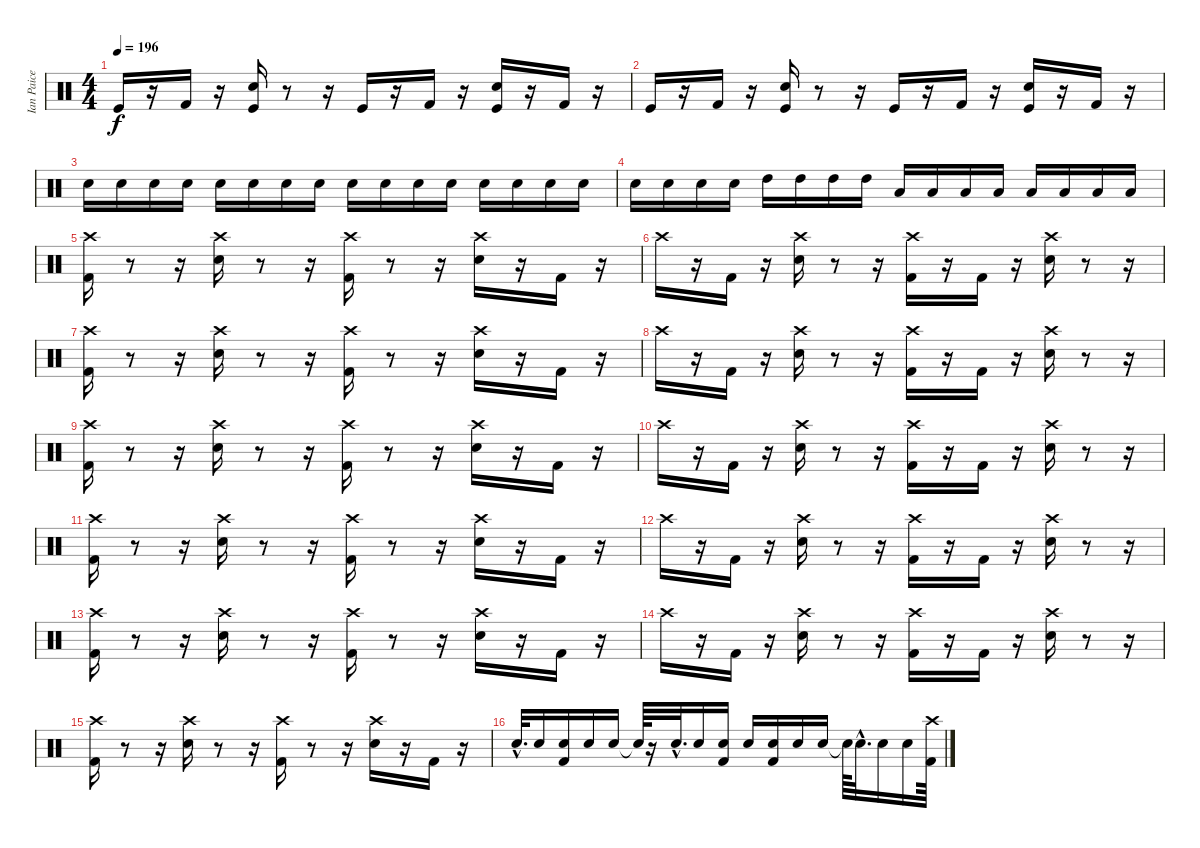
\track ("Ian Paice" "Ian Paice") {instrument percussion}
\staff {score}
\articulation defaults
\ts (4 4)
\tempo 196
\clef neutral
\ks c "Kick (hit)".16{dy f}
r.16 "Kick (hit) 2".16 r.16 ("Kick (hit)" "Snare (hit) 2").16 r.8 r.16 "Kick (hit)".16 r.16 "Kick (hit) 2".16 r.16 ("Kick (hit)" "Snare (hit) 2").16 r.16 "Kick (hit) 2".16 r.16 |
"Kick (hit)".16 r.16 "Kick (hit) 2".16 r.16 ("Kick (hit)" "Snare (hit) 2").16 r.8 r.16 "Kick (hit)".16 r.16 "Kick (hit) 2".16 r.16 ("Kick (hit)" "Snare (hit) 2").16 r.16 "Kick (hit) 2".16 r.16 |
"Snare (hit) 2".16 "Snare (hit) 2".16 "Snare (hit) 2".16 "Snare (hit) 2".16 "Snare (hit) 2".16 "Snare (hit) 2".16 "Snare (hit) 2".16 "Snare (hit) 2".16 "Snare (hit) 2".16 "Snare (hit) 2".16 "Snare (hit) 2".16 "Snare (hit) 2".16 "Snare (hit) 2".16 "Snare (hit) 2".16 "Snare (hit) 2".16 "Snare (hit) 2".16 |
"Snare (hit) 2".16 "Snare (hit) 2".16 "Snare (hit) 2".16 "Snare (hit) 2".16 "High Tom (hit)".16 "High Tom (hit)".16 "High Tom (hit)".16 "High Tom (hit)".16 "Low Tom (hit)".16 "Low Tom (hit)".16 "Low Tom (hit)".16 "Low Tom (hit)".16 "Low Floor Tom (hit)".16 "Low Floor Tom (hit)".16 "Low Floor Tom (hit)".16 "Low Floor Tom (hit)".16 |
("Crash high (hit)" "Kick (hit) 2").16 r.8 r.16 ("Crash high (hit)" "Snare (hit) 2").16 r.8 r.16 ("Crash high (hit)" "Kick (hit) 2").16 r.8 r.16 ("Crash high (hit)" "Snare (hit) 2").16 r.16 "Kick (hit) 2".16 r.16 |
"Crash high (hit)".16 r.16 "Kick (hit) 2".16 r.16 ("Crash high (hit)" "Snare (hit) 2").16 r.8 r.16 ("Crash high (hit)" "Kick (hit) 2").16 r.16 "Kick (hit) 2".16 r.16 ("Crash high (hit)" "Snare (hit) 2").16 r.8 r.16 |
("Kick (hit) 2" "Crash high (hit)").16 r.8 r.16 ("Crash high (hit)" "Snare (hit) 2").16 r.8 r.16 ("Crash high (hit)" "Kick (hit) 2").16 r.8 r.16 ("Crash high (hit)" "Snare (hit) 2").16 r.16 "Kick (hit) 2".16 r.16 |
"Crash high (hit)".16 r.16 "Kick (hit) 2".16 r.16 ("Crash high (hit)" "Snare (hit) 2").16 r.8 r.16 ("Crash high (hit)" "Kick (hit) 2").16 r.16 "Kick (hit) 2".16 r.16 ("Crash high (hit)" "Snare (hit) 2").16 r.8 r.16 |
("Kick (hit) 2" "Crash high (hit)").16 r.8 r.16 ("Crash high (hit)" "Snare (hit) 2").16 r.8 r.16 ("Crash high (hit)" "Kick (hit) 2").16 r.8 r.16 ("Crash high (hit)" "Snare (hit) 2").16 r.16 "Kick (hit) 2".16 r.16 |
"Crash high (hit)".16 r.16 "Kick (hit) 2".16 r.16 ("Crash high (hit)" "Snare (hit) 2").16 r.8 r.16 ("Crash high (hit)" "Kick (hit) 2").16 r.16 "Kick (hit) 2".16 r.16 ("Crash high (hit)" "Snare (hit) 2").16 r.8 r.16 |
("Kick (hit) 2" "Crash high (hit)").16 r.8 r.16 ("Crash high (hit)" "Snare (hit) 2").16 r.8 r.16 ("Crash high (hit)" "Kick (hit) 2").16 r.8 r.16 ("Crash high (hit)" "Snare (hit) 2").16 r.16 "Kick (hit) 2".16 r.16 |
"Crash high (hit)".16 r.16 "Kick (hit) 2".16 r.16 ("Crash high (hit)" "Snare (hit) 2").16 r.8 r.16 ("Crash high (hit)" "Kick (hit) 2").16 r.16 "Kick (hit) 2".16 r.16 ("Crash high (hit)" "Snare (hit) 2").16 r.8 r.16 |
("Kick (hit) 2" "Crash high (hit)").16 r.8 r.16 ("Crash high (hit)" "Snare (hit) 2").16 r.8 r.16 ("Crash high (hit)" "Kick (hit) 2").16 r.8 r.16 ("Crash high (hit)" "Snare (hit) 2").16 r.16 "Kick (hit) 2".16 r.16 |
"Crash high (hit)".16 r.16 "Kick (hit) 2".16 r.16 ("Crash high (hit)" "Snare (hit) 2").16 r.8 r.16 ("Crash high (hit)" "Kick (hit) 2").16 r.16 "Kick (hit) 2".16 r.16 ("Crash high (hit)" "Snare (hit) 2").16 r.8 r.16 |
("Kick (hit) 2" "Crash high (hit)").16 r.8 r.16 ("Crash high (hit)" "Snare (hit) 2").16 r.8 r.16 ("Crash high (hit)" "Kick (hit) 2").16 r.8 r.16 ("Crash high (hit)" "Snare (hit) 2").16 r.16 "Kick (hit) 2".16 r.16 |
"Snare (hit) 2"{hac}.32{d} "Snare (hit) 2".16 ("Kick (hit) 2" "Snare (hit) 2").16 "Snare (hit) 2".16 "Snare (hit) 2".16 "Snare (hit)"{t}.64 r.16 "Snare (hit) 2"{hac}.32{d} "Snare (hit) 2".16 ("Kick (hit) 2" "Snare (hit) 2").16 "Snare (hit) 2".16 ("Kick (hit) 2" "Snare (hit) 2").16 "Snare (hit) 2".16 "Snare (hit) 2".16 "Snare (hit)"{t}.64 "Snare (hit) 2"{hac}.32{d} "Snare (hit) 2".16 "Snare (hit) 2".16 ("Kick (hit) 2" "Crash high (hit)").64
